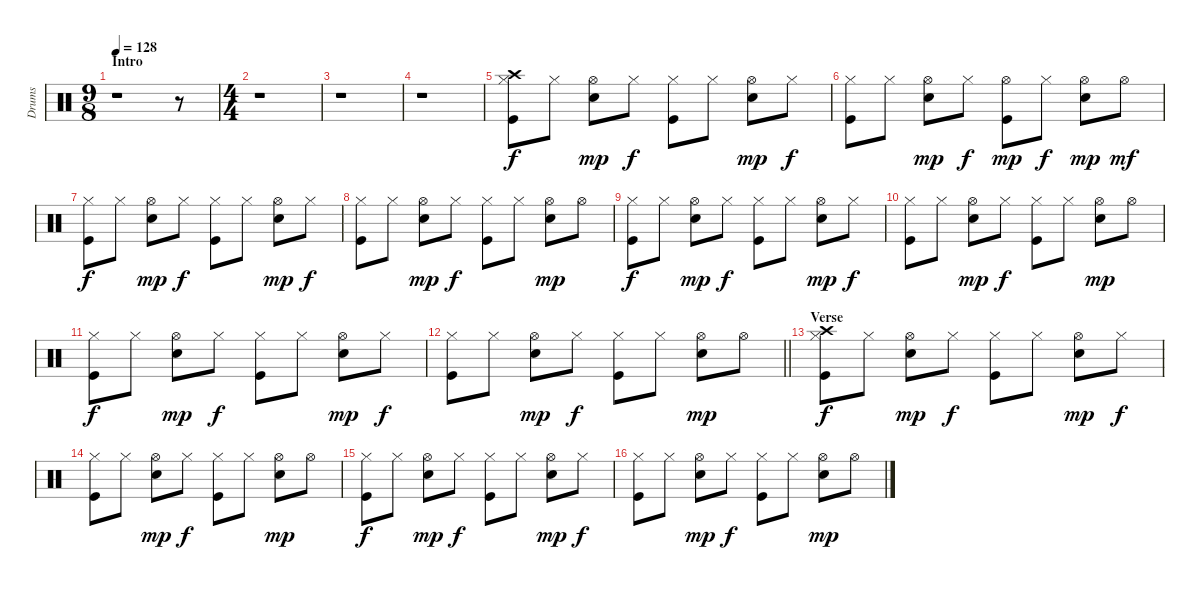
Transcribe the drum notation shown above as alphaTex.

\track ("Drums" "Drums") {instrument percussion}
\staff {score}
\articulation defaults
\ts (9 8)
\section ("" "Intro")
\tempo 128
\clef neutral
\ks c
r.1{dy f} r.8 |
\ts (4 4)
r.1 |
r.1 |
r.1 |
("Crash high (hit)" "Hi-Hat (closed)" "Kick (hit)").8 "Hi-Hat (closed)".8 ("Hi-Hat (open)" "Snare (hit) 2").8{dy mp} "Hi-Hat (closed)".8{dy f} ("Hi-Hat (closed)" "Kick (hit)").8 "Hi-Hat (closed)".8 ("Hi-Hat (open)" "Snare (hit) 2").8{dy mp} "Hi-Hat (closed)".8{dy f} |
("Hi-Hat (closed)" "Kick (hit)").8 "Hi-Hat (closed)".8 ("Hi-Hat (open)" "Snare (hit) 2").8{dy mp} "Hi-Hat (closed)".8{dy f} ("Hi-Hat (open)" "Kick (hit)").8{dy mp} "Hi-Hat (closed)".8{dy f} ("Hi-Hat (open)" "Snare (hit) 2").8{dy mp} "Hi-Hat (open)".8{dy mf} |
("Hi-Hat (closed)" "Kick (hit)").8{dy f} "Hi-Hat (closed)".8 ("Hi-Hat (open)" "Snare (hit) 2").8{dy mp} "Hi-Hat (closed)".8{dy f} ("Hi-Hat (closed)" "Kick (hit)").8 "Hi-Hat (closed)".8 ("Hi-Hat (open)" "Snare (hit) 2").8{dy mp} "Hi-Hat (closed)".8{dy f} |
("Hi-Hat (closed)" "Kick (hit)").8 "Hi-Hat (closed)".8 ("Hi-Hat (open)" "Snare (hit) 2").8{dy mp} "Hi-Hat (closed)".8{dy f} ("Hi-Hat (closed)" "Kick (hit)").8 "Hi-Hat (closed)".8 ("Hi-Hat (open)" "Snare (hit) 2").8{dy mp} "Hi-Hat (open)".8 |
("Hi-Hat (closed)" "Kick (hit)").8{dy f} "Hi-Hat (closed)".8 ("Hi-Hat (open)" "Snare (hit) 2").8{dy mp} "Hi-Hat (closed)".8{dy f} ("Hi-Hat (closed)" "Kick (hit)").8 "Hi-Hat (closed)".8 ("Hi-Hat (open)" "Snare (hit) 2").8{dy mp} "Hi-Hat (closed)".8{dy f} |
("Hi-Hat (closed)" "Kick (hit)").8 "Hi-Hat (closed)".8 ("Hi-Hat (open)" "Snare (hit) 2").8{dy mp} "Hi-Hat (closed)".8{dy f} ("Hi-Hat (closed)" "Kick (hit)").8 "Hi-Hat (closed)".8 ("Hi-Hat (open)" "Snare (hit) 2").8{dy mp} "Hi-Hat (open)".8 |
("Hi-Hat (closed)" "Kick (hit)").8{dy f} "Hi-Hat (closed)".8 ("Hi-Hat (open)" "Snare (hit) 2").8{dy mp} "Hi-Hat (closed)".8{dy f} ("Hi-Hat (closed)" "Kick (hit)").8 "Hi-Hat (closed)".8 ("Hi-Hat (open)" "Snare (hit) 2").8{dy mp} "Hi-Hat (closed)".8{dy f} |
\barLineRight lightlight
("Hi-Hat (closed)" "Kick (hit)").8 "Hi-Hat (closed)".8 ("Hi-Hat (open)" "Snare (hit) 2").8{dy mp} "Hi-Hat (closed)".8{dy f} ("Hi-Hat (closed)" "Kick (hit)").8 "Hi-Hat (closed)".8 ("Hi-Hat (open)" "Snare (hit) 2").8{dy mp} "Hi-Hat (open)".8 |
\section ("" "Verse")
("Crash high (hit)" "Hi-Hat (closed)" "Kick (hit)").8{dy f} "Hi-Hat (closed)".8 ("Hi-Hat (open)" "Snare (hit) 2").8{dy mp} "Hi-Hat (closed)".8{dy f} ("Hi-Hat (closed)" "Kick (hit)").8 "Hi-Hat (closed)".8 ("Hi-Hat (open)" "Snare (hit) 2").8{dy mp} "Hi-Hat (closed)".8{dy f} |
("Hi-Hat (closed)" "Kick (hit)").8 "Hi-Hat (closed)".8 ("Hi-Hat (open)" "Snare (hit) 2").8{dy mp} "Hi-Hat (closed)".8{dy f} ("Hi-Hat (closed)" "Kick (hit)").8 "Hi-Hat (closed)".8 ("Hi-Hat (open)" "Snare (hit) 2").8{dy mp} "Hi-Hat (open)".8 |
("Hi-Hat (closed)" "Kick (hit)").8{dy f} "Hi-Hat (closed)".8 ("Hi-Hat (open)" "Snare (hit) 2").8{dy mp} "Hi-Hat (closed)".8{dy f} ("Hi-Hat (closed)" "Kick (hit)").8 "Hi-Hat (closed)".8 ("Hi-Hat (open)" "Snare (hit) 2").8{dy mp} "Hi-Hat (closed)".8{dy f} |
("Hi-Hat (closed)" "Kick (hit)").8 "Hi-Hat (closed)".8 ("Hi-Hat (open)" "Snare (hit) 2").8{dy mp} "Hi-Hat (closed)".8{dy f} ("Hi-Hat (closed)" "Kick (hit)").8 "Hi-Hat (closed)".8 ("Hi-Hat (open)" "Snare (hit) 2").8{dy mp} "Hi-Hat (open)".8
